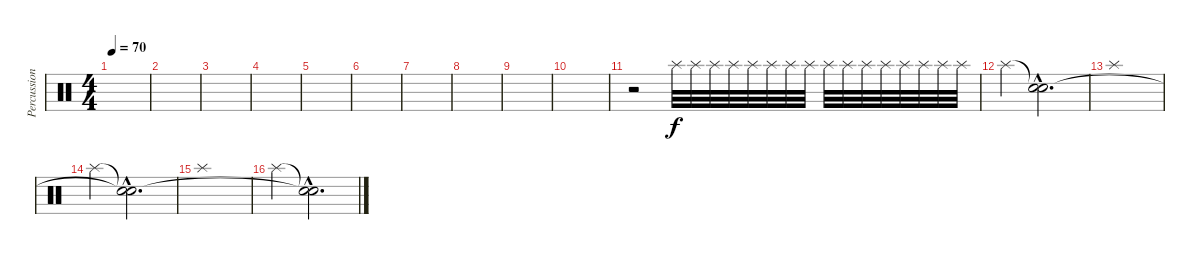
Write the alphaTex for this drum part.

\track ("Percussion" "Percussion") {instrument percussion}
\staff {score}
\articulation defaults
\ts (4 4)
\tempo 70
\clef neutral
\ks c
|
|
|
|
|
|
|
|
|
|
r.2{volume 0} "Splash (hit)".32{volume 16} "Splash (hit)".32 "Splash (hit)".32 "Splash (hit)".32 "Splash (hit)".32 "Splash (hit)".32 "Splash (hit)".32 "Splash (hit)".32 "Splash (hit)".32 "Splash (hit)".32 "Splash (hit)".32 "Splash (hit)".32 "Splash (hit)".32 "Splash (hit)".32 "Splash (hit)".32 "Splash (hit)".32 |
"Splash (hit)".4{volume 16} ("Snare (hit)"{hac t} "Snare (hit)"{hac}).2{d} |
"Splash (hit)".1{volume 12} |
"Splash (hit)".4 ("Snare (hit)"{hac t} "Snare (hit)"{hac t}).2{d} |
"Splash (hit)".1 |
"Splash (hit)".4{volume 8} ("Snare (hit)"{hac t} "Snare (hit)"{hac t}).2{d}
